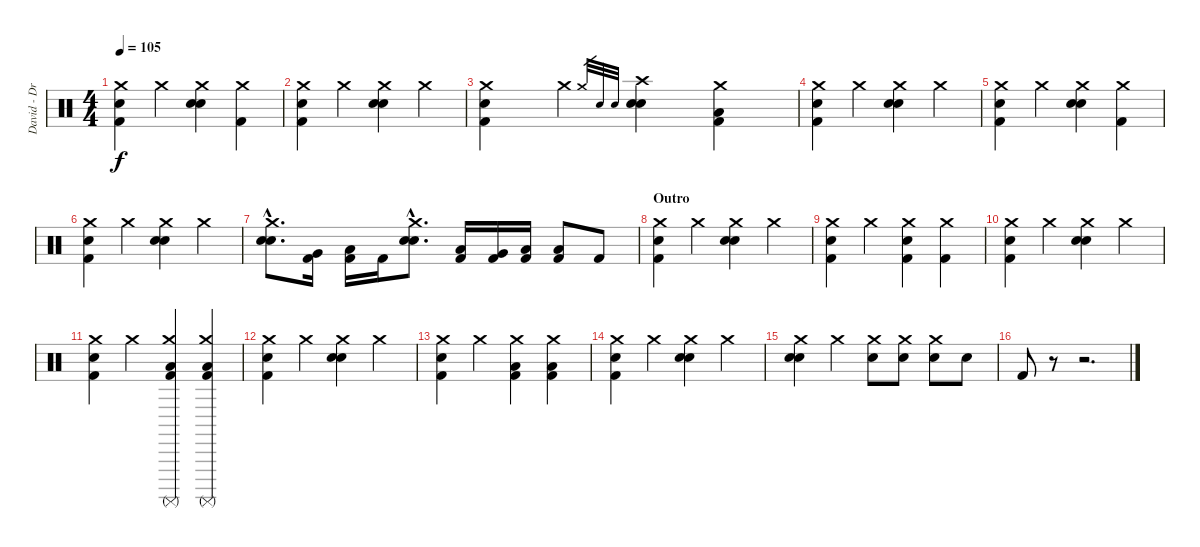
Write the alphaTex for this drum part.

\track ("David - Drums" "David - Dr") {instrument percussion}
\staff {score}
\articulation defaults
\ts (4 4)
\tempo 105
\clef neutral
\ks c
("Crash medium (hit)" "Snare (hit) 2" "Kick (hit) 2").4{dy f} "Crash medium (hit)".4 ("Crash medium (hit)" "Electric Snare (hit)" "Snare (hit) 2").4 ("Crash medium (hit)" "Kick (hit) 2").4 |
("Crash medium (hit)" "Snare (hit) 2" "Kick (hit) 2").4 "Crash medium (hit)".4 ("Crash medium (hit)" "Electric Snare (hit)" "Snare (hit) 2").4 "Crash medium (hit)".4 |
("Crash medium (hit)" "Snare (hit) 2" "Kick (hit) 2").4 "Crash medium (hit)".4 "Crash medium (hit)".32{gr} "Electric Snare (hit)".32{gr} "Snare (hit) 2".32{gr} ("Crash high (hit)" "Electric Snare (hit)" "Snare (hit) 2").4 ("Crash medium (hit)" "Low Floor Tom (hit)" "Kick (hit) 2").4 |
("Crash medium (hit)" "Snare (hit) 2" "Kick (hit) 2").4 "Crash medium (hit)".4 ("Crash medium (hit)" "Electric Snare (hit)" "Snare (hit) 2").4 "Crash medium (hit)".4 |
("Crash medium (hit)" "Snare (hit) 2" "Kick (hit) 2").4 "Crash medium (hit)".4 ("Crash medium (hit)" "Electric Snare (hit)" "Snare (hit) 2").4 ("Crash medium (hit)" "Kick (hit) 2").4 |
("Crash medium (hit)" "Snare (hit) 2" "Kick (hit) 2").4 "Crash medium (hit)".4 ("Crash medium (hit)" "Electric Snare (hit)" "Snare (hit) 2").4 "Crash medium (hit)".4 |
("Crash medium (hit)"{hac} "Electric Snare (hit)"{hac} "Snare (hit) 2"{hac}).8{d} ("Very Low Tom (hit)" "Kick (hit) 2").16 ("Low Floor Tom (hit)" "Kick (hit) 2").16 "Kick (hit) 2".16 ("Crash medium (hit)"{hac} "Electric Snare (hit)"{hac} "Snare (hit) 2"{hac}).8{d} ("Low Tom (hit)" "Kick (hit) 2").16 ("Very Low Tom (hit)" "Kick (hit) 2").16 ("Low Floor Tom (hit)" "Kick (hit) 2").16 ("Low Floor Tom (hit)" "Kick (hit) 2").8 "Kick (hit) 2".8 |
\section ("" "Outro")
("Crash medium (hit)" "Snare (hit) 2" "Kick (hit) 2").4 "Crash medium (hit)".4 ("Crash medium (hit)" "Electric Snare (hit)" "Snare (hit) 2").4 "Crash medium (hit)".4 |
("Crash medium (hit)" "Snare (hit) 2" "Kick (hit) 2").4 "Crash medium (hit)".4 ("Crash medium (hit)" "Electric Snare (hit)" "Kick (hit) 2").4 ("Crash medium (hit)" "Kick (hit) 2").4 |
("Crash medium (hit)" "Snare (hit) 2" "Kick (hit) 2").4 "Crash medium (hit)".4 ("Crash medium (hit)" "Electric Snare (hit)" "Snare (hit) 2").4 "Crash medium (hit)".4 |
("Crash medium (hit)" "Snare (hit) 2" "Kick (hit) 2").4 "Crash medium (hit)".4 ("Crash medium (hit)" "Surdo (mute)" "Low Floor Tom (hit)" "Kick (hit) 2").4 ("Crash medium (hit)" "Surdo (mute)" "Low Floor Tom (hit)" "Kick (hit) 2").4 |
("Crash medium (hit)" "Snare (hit) 2" "Kick (hit) 2").4 "Crash medium (hit)".4 ("Crash medium (hit)" "Electric Snare (hit)" "Snare (hit) 2").4 "Crash medium (hit)".4 |
("Crash medium (hit)" "Snare (hit) 2" "Kick (hit) 2").4 "Crash medium (hit)".4 ("Crash medium (hit)" "Low Floor Tom (hit)" "Kick (hit) 2").4 ("Crash medium (hit)" "Low Floor Tom (hit)" "Kick (hit) 2").4 |
("Crash medium (hit)" "Snare (hit) 2" "Kick (hit) 2").4 "Crash medium (hit)".4 ("Crash medium (hit)" "Electric Snare (hit)" "Snare (hit) 2").4 "Crash medium (hit)".4 |
("Crash medium (hit)" "Electric Snare (hit)" "Snare (hit) 2").4 "Crash medium (hit)".4 ("Crash medium (hit)" "Electric Snare (hit)").8 ("Crash medium (hit)" "Electric Snare (hit)").8 ("Crash medium (hit)" "Electric Snare (hit)").8 "Electric Snare (hit)".8 |
"Kick (hit) 2".8 r.8 r.2{d}
